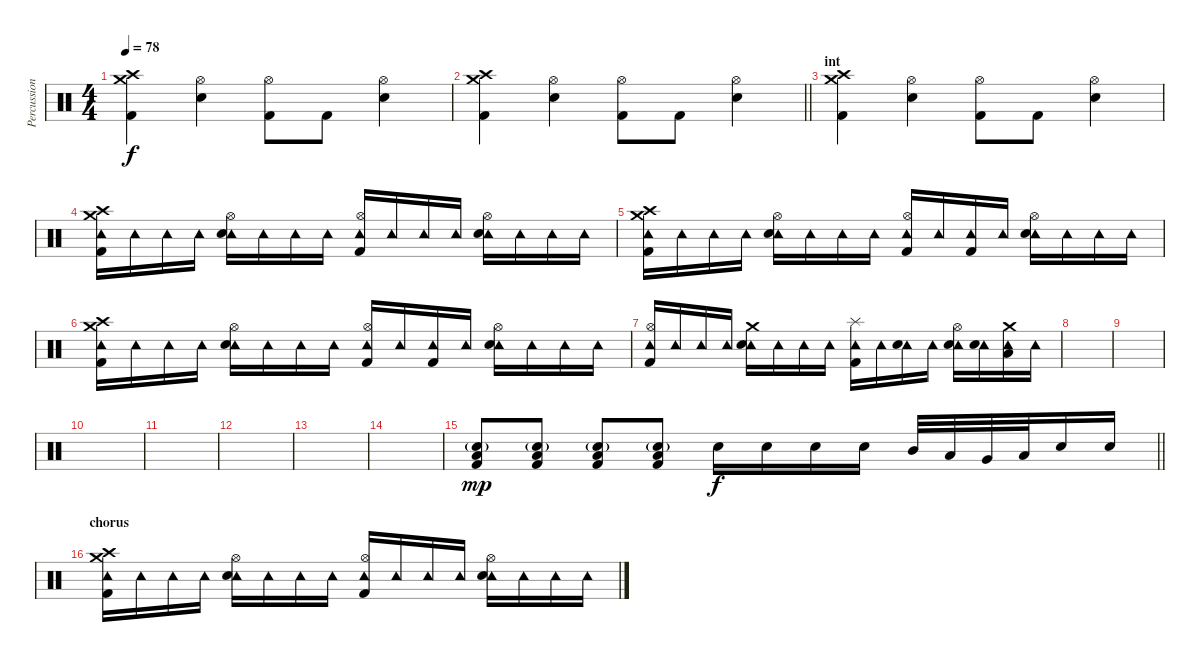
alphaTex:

\track ("Percussion" "Percussion") {instrument percussion}
\staff {score}
\articulation defaults
\ts (4 4)
\tempo 78
\clef neutral
\ks c
("Crash high (hit)" "Crash medium (hit)" "Kick (hit) 2").4{dy f} ("Hi-Hat (open)" "Electric Snare (hit)").4 ("Hi-Hat (open)" "Kick (hit) 2").8 "Kick (hit) 2".8 ("Hi-Hat (open)" "Electric Snare (hit)").4 |
\barLineRight lightlight
("Crash high (hit)" "Crash medium (hit)" "Kick (hit) 2").4 ("Hi-Hat (open)" "Electric Snare (hit)").4 ("Hi-Hat (open)" "Kick (hit) 2").8 "Kick (hit) 2".8 ("Hi-Hat (open)" "Electric Snare (hit)").4 |
\section ("" "int")
("Crash high (hit)" "Crash medium (hit)" "Kick (hit) 2").4 ("Hi-Hat (open)" "Electric Snare (hit)").4 ("Hi-Hat (open)" "Kick (hit) 2").8 "Kick (hit) 2".8 ("Hi-Hat (open)" "Electric Snare (hit)").4 |
("Tambourine (hit)" "Crash high (hit)" "Crash medium (hit)" "Kick (hit) 2").16 "Tambourine (hit)".16 "Tambourine (hit)".16 "Tambourine (hit)".16 ("Tambourine (hit)" "Hi-Hat (open)" "Electric Snare (hit)").16 "Tambourine (hit)".16 "Tambourine (hit)".16 "Tambourine (hit)".16 ("Tambourine (hit)" "Hi-Hat (open)" "Kick (hit) 2").16 "Tambourine (hit)".16 "Tambourine (hit)".16 "Tambourine (hit)".16 ("Tambourine (hit)" "Hi-Hat (open)" "Electric Snare (hit)").16 "Tambourine (hit)".16 "Tambourine (hit)".16 "Tambourine (hit)".16 |
("Tambourine (hit)" "Crash high (hit)" "Crash medium (hit)" "Kick (hit) 2").16 "Tambourine (hit)".16 "Tambourine (hit)".16 "Tambourine (hit)".16 ("Tambourine (hit)" "Hi-Hat (open)" "Electric Snare (hit)").16 "Tambourine (hit)".16 "Tambourine (hit)".16 "Tambourine (hit)".16 ("Tambourine (hit)" "Hi-Hat (open)" "Kick (hit) 2").16 "Tambourine (hit)".16 ("Tambourine (hit)" "Kick (hit) 2").16 "Tambourine (hit)".16 ("Tambourine (hit)" "Hi-Hat (open)" "Electric Snare (hit)").16 "Tambourine (hit)".16 "Tambourine (hit)".16 "Tambourine (hit)".16 |
("Tambourine (hit)" "Crash high (hit)" "Crash medium (hit)" "Kick (hit) 2").16 "Tambourine (hit)".16 "Tambourine (hit)".16 "Tambourine (hit)".16 ("Tambourine (hit)" "Hi-Hat (open)" "Electric Snare (hit)").16 "Tambourine (hit)".16 "Tambourine (hit)".16 "Tambourine (hit)".16 ("Tambourine (hit)" "Hi-Hat (open)" "Kick (hit) 2").16 "Tambourine (hit)".16 ("Tambourine (hit)" "Kick (hit) 2").16 "Tambourine (hit)".16 ("Tambourine (hit)" "Hi-Hat (open)" "Electric Snare (hit)").16 "Tambourine (hit)".16 "Tambourine (hit)".16 "Tambourine (hit)".16 |
("Tambourine (hit)" "Hi-Hat (open)" "Kick (hit) 2").16 "Tambourine (hit)".16 "Tambourine (hit)".16 "Tambourine (hit)".16 ("Tambourine (hit)" "Crash medium (hit)" "Electric Snare (hit)").16 "Tambourine (hit)".16 "Tambourine (hit)".16 "Tambourine (hit)".16 ("Tambourine (hit)" "Splash (hit)" "Kick (hit) 2").16 "Tambourine (hit)".16 ("Tambourine (hit)" "Electric Snare (hit)").16 "Tambourine (hit)".16 ("Tambourine (hit)" "Hi-Hat (open)" "Electric Snare (hit)").16 ("Tambourine (hit)" "Electric Snare (hit)").16 ("Tambourine (hit)" "Crash medium (hit)" "Low Tom (hit)").16 "Tambourine (hit)".16 |
|
|
|
|
|
|
|
\barLineRight lightlight
("Kick (hit) 2" "Low Floor Tom (hit)" "Snare (hit) 2"{g}).8{dy mp} ("Kick (hit) 2" "Low Floor Tom (hit)" "Snare (hit) 2"{g}).8 ("Kick (hit) 2" "Low Floor Tom (hit)" "Snare (hit) 2"{g}).8 ("Kick (hit) 2" "Low Floor Tom (hit)" "Snare (hit) 2"{g}).8 "Electric Snare (hit)".16{dy f} "Electric Snare (hit)".16 "Electric Snare (hit)".16 "Electric Snare (hit)".16 "Mid Tom (hit)".32 "Low Tom (hit)".32 "Very Low Tom (hit)".32 "Low Tom (hit)".32 "Electric Snare (hit)".16 "Electric Snare (hit)".16 |
\section ("" "chorus")
("Tambourine (hit)" "Crash high (hit)" "Crash medium (hit)" "Kick (hit) 2").16 "Tambourine (hit)".16 "Tambourine (hit)".16 "Tambourine (hit)".16 ("Tambourine (hit)" "Hi-Hat (open)" "Electric Snare (hit)").16 "Tambourine (hit)".16 "Tambourine (hit)".16 "Tambourine (hit)".16 ("Tambourine (hit)" "Hi-Hat (open)" "Kick (hit) 2").16 "Tambourine (hit)".16 "Tambourine (hit)".16 "Tambourine (hit)".16 ("Tambourine (hit)" "Hi-Hat (open)" "Electric Snare (hit)").16 "Tambourine (hit)".16 "Tambourine (hit)".16 "Tambourine (hit)".16
